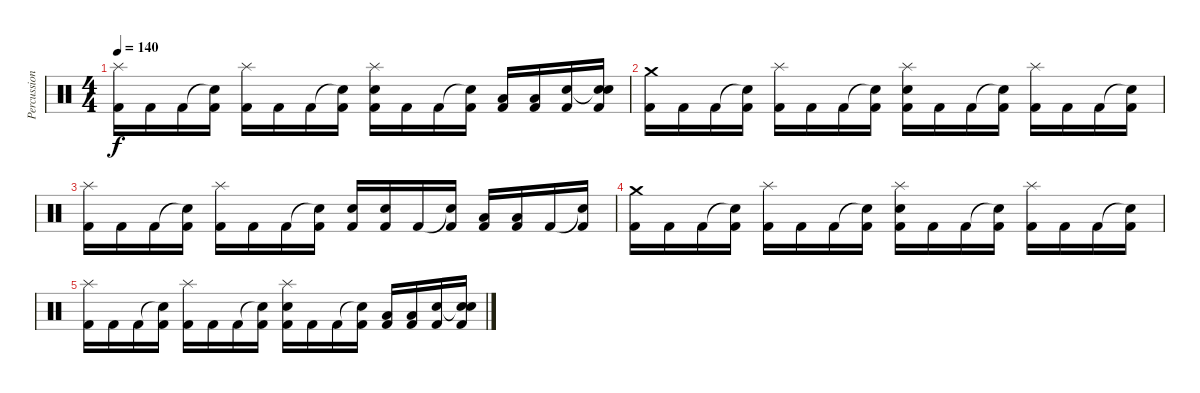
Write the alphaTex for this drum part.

\track ("Percussion" "Percussion") {instrument percussion}
\staff {score}
\articulation defaults
\ts (4 4)
\tempo 140
\clef neutral
\ks c
("Splash (hit)" "Kick (hit) 2").16{dy f} "Kick (hit) 2".16 "Kick (hit) 2".16 ("Snare (hit)"{t} "Kick (hit) 2").16 ("Splash (hit)" "Kick (hit) 2").16 "Kick (hit) 2".16 "Kick (hit) 2".16 ("Snare (hit)"{t} "Kick (hit) 2").16 ("Splash (hit)" "Electric Snare (hit)" "Kick (hit) 2").16 "Kick (hit) 2".16 "Kick (hit) 2".16 ("Snare (hit)"{t} "Kick (hit) 2").16 ("Low Floor Tom (hit)" "Kick (hit) 2").16 ("Low Floor Tom (hit)" "Kick (hit) 2").16 ("Electric Snare (hit)" "Kick (hit) 2").16 ("Snare (hit)"{t} "Electric Snare (hit)" "Kick (hit) 2").16 |
("Crash medium (hit)" "Kick (hit) 2").16 "Kick (hit) 2".16 "Kick (hit) 2".16 ("Snare (hit)"{t} "Kick (hit) 2").16 ("Splash (hit)" "Kick (hit) 2").16 "Kick (hit) 2".16 "Kick (hit) 2".16 ("Snare (hit)"{t} "Kick (hit) 2").16 ("Splash (hit)" "Electric Snare (hit)" "Kick (hit) 2").16 "Kick (hit) 2".16 "Kick (hit) 2".16 ("Snare (hit)"{t} "Kick (hit) 2").16 ("Splash (hit)" "Kick (hit) 2").16 "Kick (hit) 2".16 "Kick (hit) 2".16 ("Snare (hit)"{t} "Kick (hit) 2").16 |
("Splash (hit)" "Kick (hit) 2").16 "Kick (hit) 2".16 "Kick (hit) 2".16 ("Snare (hit)"{t} "Kick (hit) 2").16 ("Splash (hit)" "Kick (hit) 2").16 "Kick (hit) 2".16 "Kick (hit) 2".16 ("Snare (hit)"{t} "Kick (hit) 2").16 ("Electric Snare (hit)" "Kick (hit) 2").16 ("Electric Snare (hit)" "Kick (hit) 2").16 "Kick (hit) 2".16 ("Snare (hit)"{t} "Kick (hit) 2").16 ("Low Floor Tom (hit)" "Kick (hit) 2").16 ("Low Floor Tom (hit)" "Kick (hit) 2").16 "Kick (hit) 2".16 ("Snare (hit)"{t} "Kick (hit) 2").16 |
("Crash medium (hit)" "Kick (hit) 2").16 "Kick (hit) 2".16 "Kick (hit) 2".16 ("Snare (hit)"{t} "Kick (hit) 2").16 ("Splash (hit)" "Kick (hit) 2").16 "Kick (hit) 2".16 "Kick (hit) 2".16 ("Snare (hit)"{t} "Kick (hit) 2").16 ("Splash (hit)" "Electric Snare (hit)" "Kick (hit) 2").16 "Kick (hit) 2".16 "Kick (hit) 2".16 ("Snare (hit)"{t} "Kick (hit) 2").16 ("Splash (hit)" "Kick (hit) 2").16 "Kick (hit) 2".16 "Kick (hit) 2".16 ("Snare (hit)"{t} "Kick (hit) 2").16 |
("Splash (hit)" "Kick (hit) 2").16 "Kick (hit) 2".16 "Kick (hit) 2".16 ("Snare (hit)"{t} "Kick (hit) 2").16 ("Splash (hit)" "Kick (hit) 2").16 "Kick (hit) 2".16 "Kick (hit) 2".16 ("Snare (hit)"{t} "Kick (hit) 2").16 ("Splash (hit)" "Electric Snare (hit)" "Kick (hit) 2").16 "Kick (hit) 2".16 "Kick (hit) 2".16 ("Snare (hit)"{t} "Kick (hit) 2").16 ("Low Floor Tom (hit)" "Kick (hit) 2").16 ("Low Floor Tom (hit)" "Kick (hit) 2").16 ("Electric Snare (hit)" "Kick (hit) 2").16 ("Snare (hit)"{t} "Electric Snare (hit)" "Kick (hit) 2").16
